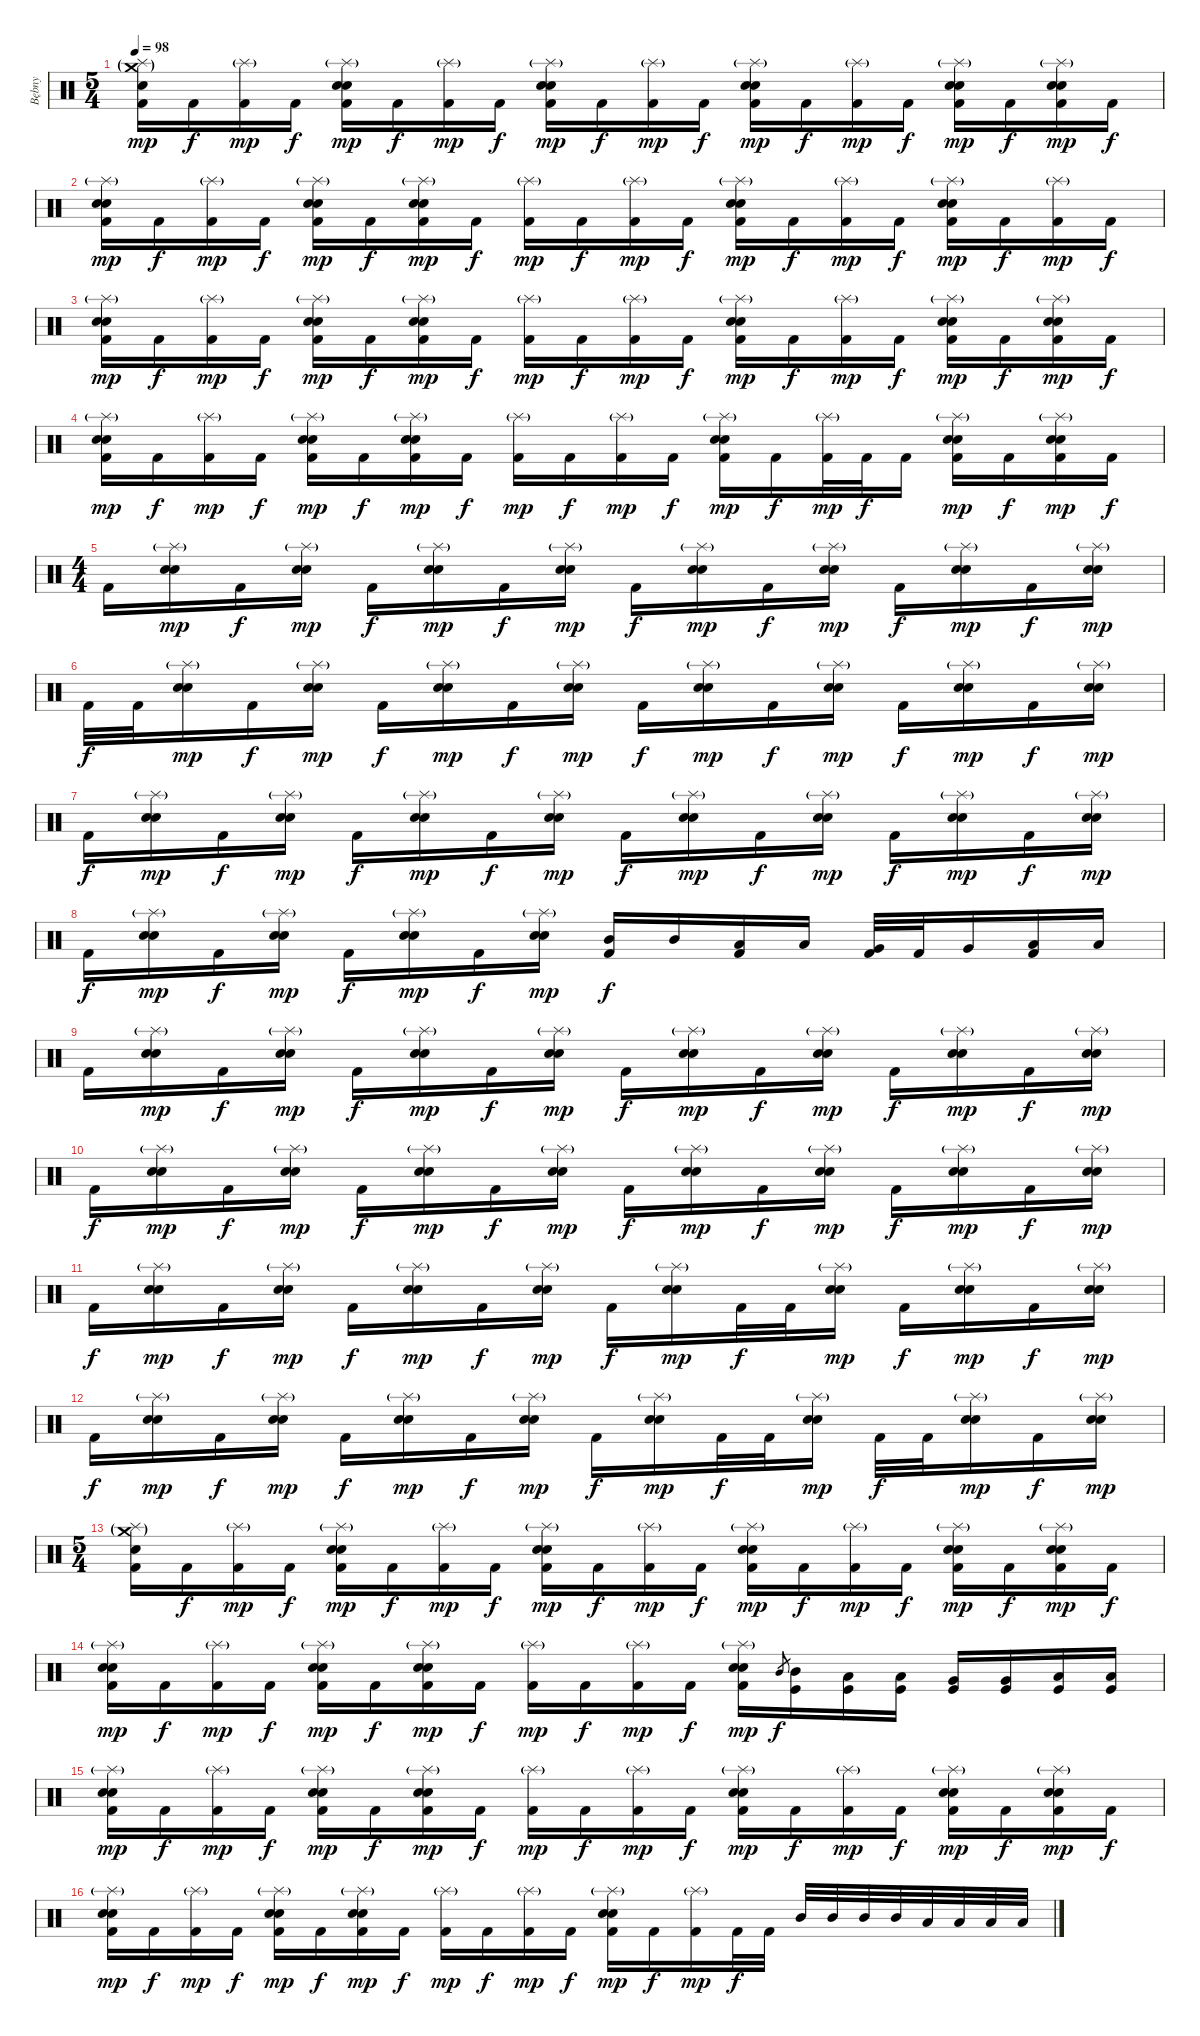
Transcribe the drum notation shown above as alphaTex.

\track ("Bębny" "Bębny") {instrument percussion}
\staff {score}
\articulation defaults
\ts (5 4)
\tempo 98
\clef neutral
\ks c
("Splash (hit)"{g} "Crash medium (hit)"{g} "Electric Snare (hit)" "Kick (hit) 2").16{dy mp} "Kick (hit) 2".16{dy f} ("Splash (hit)"{g} "Kick (hit) 2").16{dy mp} "Kick (hit) 2".16{dy f} ("Splash (hit)"{g} "Snare (hit) 2" "Electric Snare (hit)" "Kick (hit) 2").16{dy mp} "Kick (hit) 2".16{dy f} ("Splash (hit)"{g} "Kick (hit) 2").16{dy mp} "Kick (hit) 2".16{dy f} ("Splash (hit)"{g} "Snare (hit) 2" "Electric Snare (hit)" "Kick (hit) 2").16{dy mp} "Kick (hit) 2".16{dy f} ("Splash (hit)"{g} "Kick (hit) 2").16{dy mp} "Kick (hit) 2".16{dy f} ("Splash (hit)"{g} "Snare (hit) 2" "Electric Snare (hit)" "Kick (hit) 2").16{dy mp} "Kick (hit) 2".16{dy f} ("Splash (hit)"{g} "Kick (hit) 2").16{dy mp} "Kick (hit) 2".16{dy f} ("Splash (hit)"{g} "Snare (hit) 2" "Electric Snare (hit)" "Kick (hit) 2").16{dy mp} "Kick (hit) 2".16{dy f} ("Splash (hit)"{g} "Snare (hit) 2" "Electric Snare (hit)" "Kick (hit) 2").16{dy mp} "Kick (hit) 2".16{dy f} |
("Splash (hit)"{g} "Snare (hit) 2" "Electric Snare (hit)" "Kick (hit) 2").16{dy mp} "Kick (hit) 2".16{dy f} ("Splash (hit)"{g} "Kick (hit) 2").16{dy mp} "Kick (hit) 2".16{dy f} ("Splash (hit)"{g} "Snare (hit) 2" "Electric Snare (hit)" "Kick (hit) 2").16{dy mp} "Kick (hit) 2".16{dy f} ("Splash (hit)"{g} "Snare (hit) 2" "Electric Snare (hit)" "Kick (hit) 2").16{dy mp} "Kick (hit) 2".16{dy f} ("Splash (hit)"{g} "Kick (hit) 2").16{dy mp} "Kick (hit) 2".16{dy f} ("Splash (hit)"{g} "Kick (hit) 2").16{dy mp} "Kick (hit) 2".16{dy f} ("Splash (hit)"{g} "Snare (hit) 2" "Electric Snare (hit)" "Kick (hit) 2").16{dy mp} "Kick (hit) 2".16{dy f} ("Splash (hit)"{g} "Kick (hit) 2").16{dy mp} "Kick (hit) 2".16{dy f} ("Splash (hit)"{g} "Snare (hit) 2" "Electric Snare (hit)" "Kick (hit) 2").16{dy mp} "Kick (hit) 2".16{dy f} ("Splash (hit)"{g} "Kick (hit) 2").16{dy mp} "Kick (hit) 2".16{dy f} |
("Splash (hit)"{g} "Snare (hit) 2" "Electric Snare (hit)" "Kick (hit) 2").16{dy mp} "Kick (hit) 2".16{dy f} ("Splash (hit)"{g} "Kick (hit) 2").16{dy mp} "Kick (hit) 2".16{dy f} ("Splash (hit)"{g} "Snare (hit) 2" "Electric Snare (hit)" "Kick (hit) 2").16{dy mp} "Kick (hit) 2".16{dy f} ("Splash (hit)"{g} "Snare (hit) 2" "Electric Snare (hit)" "Kick (hit) 2").16{dy mp} "Kick (hit) 2".16{dy f} ("Splash (hit)"{g} "Kick (hit) 2").16{dy mp} "Kick (hit) 2".16{dy f} ("Splash (hit)"{g} "Kick (hit) 2").16{dy mp} "Kick (hit) 2".16{dy f} ("Splash (hit)"{g} "Snare (hit) 2" "Electric Snare (hit)" "Kick (hit) 2").16{dy mp} "Kick (hit) 2".16{dy f} ("Splash (hit)"{g} "Kick (hit) 2").16{dy mp} "Kick (hit) 2".16{dy f} ("Splash (hit)"{g} "Snare (hit) 2" "Electric Snare (hit)" "Kick (hit) 2").16{dy mp} "Kick (hit) 2".16{dy f} ("Splash (hit)"{g} "Snare (hit) 2" "Electric Snare (hit)" "Kick (hit) 2").16{dy mp} "Kick (hit) 2".16{dy f} |
("Splash (hit)"{g} "Snare (hit) 2" "Electric Snare (hit)" "Kick (hit) 2").16{dy mp} "Kick (hit) 2".16{dy f} ("Splash (hit)"{g} "Kick (hit) 2").16{dy mp} "Kick (hit) 2".16{dy f} ("Splash (hit)"{g} "Snare (hit) 2" "Electric Snare (hit)" "Kick (hit) 2").16{dy mp} "Kick (hit) 2".16{dy f} ("Splash (hit)"{g} "Snare (hit) 2" "Electric Snare (hit)" "Kick (hit) 2").16{dy mp} "Kick (hit) 2".16{dy f} ("Splash (hit)"{g} "Kick (hit) 2").16{dy mp} "Kick (hit) 2".16{dy f} ("Splash (hit)"{g} "Kick (hit) 2").16{dy mp} "Kick (hit) 2".16{dy f} ("Splash (hit)"{g} "Snare (hit) 2" "Electric Snare (hit)" "Kick (hit) 2").16{dy mp} "Kick (hit) 2".16{dy f} ("Splash (hit)"{g} "Kick (hit) 2").32{dy mp} "Kick (hit) 2".32{dy f} "Kick (hit) 2".16 ("Splash (hit)"{g} "Snare (hit) 2" "Electric Snare (hit)" "Kick (hit) 2").16{dy mp} "Kick (hit) 2".16{dy f} ("Splash (hit)"{g} "Snare (hit) 2" "Electric Snare (hit)" "Kick (hit) 2").16{dy mp} "Kick (hit) 2".16{dy f} |
\ts (4 4)
"Kick (hit) 2".16 ("Splash (hit)"{g} "Snare (hit) 2" "Electric Snare (hit)").16{dy mp} "Kick (hit) 2".16{dy f} ("Splash (hit)"{g} "Snare (hit) 2" "Electric Snare (hit)").16{dy mp} "Kick (hit) 2".16{dy f} ("Splash (hit)"{g} "Snare (hit) 2" "Electric Snare (hit)").16{dy mp} "Kick (hit) 2".16{dy f} ("Splash (hit)"{g} "Snare (hit) 2" "Electric Snare (hit)").16{dy mp} "Kick (hit) 2".16{dy f} ("Splash (hit)"{g} "Snare (hit) 2" "Electric Snare (hit)").16{dy mp} "Kick (hit) 2".16{dy f} ("Splash (hit)"{g} "Snare (hit) 2" "Electric Snare (hit)").16{dy mp} "Kick (hit) 2".16{dy f} ("Splash (hit)"{g} "Snare (hit) 2" "Electric Snare (hit)").16{dy mp} "Kick (hit) 2".16{dy f} ("Splash (hit)"{g} "Snare (hit) 2" "Electric Snare (hit)").16{dy mp} |
"Kick (hit) 2".32{dy f} "Kick (hit) 2".32 ("Splash (hit)"{g} "Snare (hit) 2" "Electric Snare (hit)").16{dy mp} "Kick (hit) 2".16{dy f} ("Splash (hit)"{g} "Snare (hit) 2" "Electric Snare (hit)").16{dy mp} "Kick (hit) 2".16{dy f} ("Splash (hit)"{g} "Snare (hit) 2" "Electric Snare (hit)").16{dy mp} "Kick (hit) 2".16{dy f} ("Splash (hit)"{g} "Snare (hit) 2" "Electric Snare (hit)").16{dy mp} "Kick (hit) 2".16{dy f} ("Splash (hit)"{g} "Snare (hit) 2" "Electric Snare (hit)").16{dy mp} "Kick (hit) 2".16{dy f} ("Splash (hit)"{g} "Snare (hit) 2" "Electric Snare (hit)").16{dy mp} "Kick (hit) 2".16{dy f} ("Splash (hit)"{g} "Snare (hit) 2" "Electric Snare (hit)").16{dy mp} "Kick (hit) 2".16{dy f} ("Splash (hit)"{g} "Snare (hit) 2" "Electric Snare (hit)").16{dy mp} |
"Kick (hit) 2".16{dy f} ("Splash (hit)"{g} "Snare (hit) 2" "Electric Snare (hit)").16{dy mp} "Kick (hit) 2".16{dy f} ("Splash (hit)"{g} "Snare (hit) 2" "Electric Snare (hit)").16{dy mp} "Kick (hit) 2".16{dy f} ("Splash (hit)"{g} "Snare (hit) 2" "Electric Snare (hit)").16{dy mp} "Kick (hit) 2".16{dy f} ("Splash (hit)"{g} "Snare (hit) 2" "Electric Snare (hit)").16{dy mp} "Kick (hit) 2".16{dy f} ("Splash (hit)"{g} "Snare (hit) 2" "Electric Snare (hit)").16{dy mp} "Kick (hit) 2".16{dy f} ("Splash (hit)"{g} "Snare (hit) 2" "Electric Snare (hit)").16{dy mp} "Kick (hit) 2".16{dy f} ("Splash (hit)"{g} "Snare (hit) 2" "Electric Snare (hit)").16{dy mp} "Kick (hit) 2".16{dy f} ("Splash (hit)"{g} "Snare (hit) 2" "Electric Snare (hit)").16{dy mp} |
"Kick (hit) 2".16{dy f} ("Splash (hit)"{g} "Snare (hit) 2" "Electric Snare (hit)").16{dy mp} "Kick (hit) 2".16{dy f} ("Splash (hit)"{g} "Snare (hit) 2" "Electric Snare (hit)").16{dy mp} "Kick (hit) 2".16{dy f} ("Splash (hit)"{g} "Snare (hit) 2" "Electric Snare (hit)").16{dy mp} "Kick (hit) 2".16{dy f} ("Splash (hit)"{g} "Snare (hit) 2" "Electric Snare (hit)").16{dy mp} ("Mid Tom (hit)" "Kick (hit) 2").16{dy f} "Mid Tom (hit)".16 ("Low Tom (hit)" "Kick (hit) 2").16 "Low Tom (hit)".16 ("Very Low Tom (hit)" "Kick (hit) 2").32 "Kick (hit) 2".32 "Very Low Tom (hit)".16 ("Low Floor Tom (hit)" "Kick (hit) 2").16 "Low Floor Tom (hit)".16 |
"Kick (hit) 2".16 ("Splash (hit)"{g} "Snare (hit) 2" "Electric Snare (hit)").16{dy mp} "Kick (hit) 2".16{dy f} ("Splash (hit)"{g} "Snare (hit) 2" "Electric Snare (hit)").16{dy mp} "Kick (hit) 2".16{dy f} ("Splash (hit)"{g} "Snare (hit) 2" "Electric Snare (hit)").16{dy mp} "Kick (hit) 2".16{dy f} ("Splash (hit)"{g} "Snare (hit) 2" "Electric Snare (hit)").16{dy mp} "Kick (hit) 2".16{dy f} ("Splash (hit)"{g} "Snare (hit) 2" "Electric Snare (hit)").16{dy mp} "Kick (hit) 2".16{dy f} ("Splash (hit)"{g} "Snare (hit) 2" "Electric Snare (hit)").16{dy mp} "Kick (hit) 2".16{dy f} ("Splash (hit)"{g} "Snare (hit) 2" "Electric Snare (hit)").16{dy mp} "Kick (hit) 2".16{dy f} ("Splash (hit)"{g} "Snare (hit) 2" "Electric Snare (hit)").16{dy mp} |
"Kick (hit) 2".16{dy f} ("Splash (hit)"{g} "Snare (hit) 2" "Electric Snare (hit)").16{dy mp} "Kick (hit) 2".16{dy f} ("Splash (hit)"{g} "Snare (hit) 2" "Electric Snare (hit)").16{dy mp} "Kick (hit) 2".16{dy f} ("Splash (hit)"{g} "Snare (hit) 2" "Electric Snare (hit)").16{dy mp} "Kick (hit) 2".16{dy f} ("Splash (hit)"{g} "Snare (hit) 2" "Electric Snare (hit)").16{dy mp} "Kick (hit) 2".16{dy f} ("Splash (hit)"{g} "Snare (hit) 2" "Electric Snare (hit)").16{dy mp} "Kick (hit) 2".16{dy f} ("Splash (hit)"{g} "Snare (hit) 2" "Electric Snare (hit)").16{dy mp} "Kick (hit) 2".16{dy f} ("Splash (hit)"{g} "Snare (hit) 2" "Electric Snare (hit)").16{dy mp} "Kick (hit) 2".16{dy f} ("Splash (hit)"{g} "Snare (hit) 2" "Electric Snare (hit)").16{dy mp} |
"Kick (hit) 2".16{dy f} ("Splash (hit)"{g} "Snare (hit) 2" "Electric Snare (hit)").16{dy mp} "Kick (hit) 2".16{dy f} ("Splash (hit)"{g} "Snare (hit) 2" "Electric Snare (hit)").16{dy mp} "Kick (hit) 2".16{dy f} ("Splash (hit)"{g} "Snare (hit) 2" "Electric Snare (hit)").16{dy mp} "Kick (hit) 2".16{dy f} ("Splash (hit)"{g} "Snare (hit) 2" "Electric Snare (hit)").16{dy mp} "Kick (hit) 2".16{dy f} ("Splash (hit)"{g} "Snare (hit) 2" "Electric Snare (hit)").16{dy mp} "Kick (hit) 2".32{dy f} "Kick (hit) 2".32 ("Splash (hit)"{g} "Snare (hit) 2" "Electric Snare (hit)").16{dy mp} "Kick (hit) 2".16{dy f} ("Splash (hit)"{g} "Snare (hit) 2" "Electric Snare (hit)").16{dy mp} "Kick (hit) 2".16{dy f} ("Splash (hit)"{g} "Snare (hit) 2" "Electric Snare (hit)").16{dy mp} |
"Kick (hit) 2".16{dy f} ("Splash (hit)"{g} "Snare (hit) 2" "Electric Snare (hit)").16{dy mp} "Kick (hit) 2".16{dy f} ("Splash (hit)"{g} "Snare (hit) 2" "Electric Snare (hit)").16{dy mp} "Kick (hit) 2".16{dy f} ("Splash (hit)"{g} "Snare (hit) 2" "Electric Snare (hit)").16{dy mp} "Kick (hit) 2".16{dy f} ("Splash (hit)"{g} "Snare (hit) 2" "Electric Snare (hit)").16{dy mp} "Kick (hit) 2".16{dy f} ("Splash (hit)"{g} "Snare (hit) 2" "Electric Snare (hit)").16{dy mp} "Kick (hit) 2".32{dy f} "Kick (hit) 2".32 ("Splash (hit)"{g} "Snare (hit) 2" "Electric Snare (hit)").16{dy mp} "Kick (hit) 2".32{dy f} "Kick (hit) 2".32 ("Splash (hit)"{g} "Snare (hit) 2" "Electric Snare (hit)").16{dy mp} "Kick (hit) 2".16{dy f} ("Splash (hit)"{g} "Snare (hit) 2" "Electric Snare (hit)").16{dy mp} |
\ts (5 4)
("Splash (hit)"{g} "Crash medium (hit)"{g} "Electric Snare (hit)" "Kick (hit) 2").16 "Kick (hit) 2".16{dy f} ("Splash (hit)"{g} "Kick (hit) 2").16{dy mp} "Kick (hit) 2".16{dy f} ("Splash (hit)"{g} "Snare (hit) 2" "Electric Snare (hit)" "Kick (hit) 2").16{dy mp} "Kick (hit) 2".16{dy f} ("Splash (hit)"{g} "Kick (hit) 2").16{dy mp} "Kick (hit) 2".16{dy f} ("Splash (hit)"{g} "Snare (hit) 2" "Electric Snare (hit)" "Kick (hit) 2").16{dy mp} "Kick (hit) 2".16{dy f} ("Splash (hit)"{g} "Kick (hit) 2").16{dy mp} "Kick (hit) 2".16{dy f} ("Splash (hit)"{g} "Snare (hit) 2" "Electric Snare (hit)" "Kick (hit) 2").16{dy mp} "Kick (hit) 2".16{dy f} ("Splash (hit)"{g} "Kick (hit) 2").16{dy mp} "Kick (hit) 2".16{dy f} ("Splash (hit)"{g} "Snare (hit) 2" "Electric Snare (hit)" "Kick (hit) 2").16{dy mp} "Kick (hit) 2".16{dy f} ("Splash (hit)"{g} "Snare (hit) 2" "Electric Snare (hit)" "Kick (hit) 2").16{dy mp} "Kick (hit) 2".16{dy f} |
("Splash (hit)"{g} "Snare (hit) 2" "Electric Snare (hit)" "Kick (hit) 2").16{dy mp} "Kick (hit) 2".16{dy f} ("Splash (hit)"{g} "Kick (hit) 2").16{dy mp} "Kick (hit) 2".16{dy f} ("Splash (hit)"{g} "Snare (hit) 2" "Electric Snare (hit)" "Kick (hit) 2").16{dy mp} "Kick (hit) 2".16{dy f} ("Splash (hit)"{g} "Snare (hit) 2" "Electric Snare (hit)" "Kick (hit) 2").16{dy mp} "Kick (hit) 2".16{dy f} ("Splash (hit)"{g} "Kick (hit) 2").16{dy mp} "Kick (hit) 2".16{dy f} ("Splash (hit)"{g} "Kick (hit) 2").16{dy mp} "Kick (hit) 2".16{dy f} ("Splash (hit)"{g} "Snare (hit) 2" "Electric Snare (hit)" "Kick (hit) 2").16{dy mp} "Mid Tom (hit)".8{gr dy f} ("Mid Tom (hit)" "Kick (hit)").16 ("Low Tom (hit)" "Kick (hit)").16 ("Low Tom (hit)" "Kick (hit)").16 ("Very Low Tom (hit)" "Kick (hit)").16 ("Very Low Tom (hit)" "Kick (hit)").16 ("Low Floor Tom (hit)" "Kick (hit)").16 ("Low Floor Tom (hit)" "Kick (hit)").16 |
("Splash (hit)"{g} "Snare (hit) 2" "Electric Snare (hit)" "Kick (hit) 2").16{dy mp} "Kick (hit) 2".16{dy f} ("Splash (hit)"{g} "Kick (hit) 2").16{dy mp} "Kick (hit) 2".16{dy f} ("Splash (hit)"{g} "Snare (hit) 2" "Electric Snare (hit)" "Kick (hit) 2").16{dy mp} "Kick (hit) 2".16{dy f} ("Splash (hit)"{g} "Snare (hit) 2" "Electric Snare (hit)" "Kick (hit) 2").16{dy mp} "Kick (hit) 2".16{dy f} ("Splash (hit)"{g} "Kick (hit) 2").16{dy mp} "Kick (hit) 2".16{dy f} ("Splash (hit)"{g} "Kick (hit) 2").16{dy mp} "Kick (hit) 2".16{dy f} ("Splash (hit)"{g} "Snare (hit) 2" "Electric Snare (hit)" "Kick (hit) 2").16{dy mp} "Kick (hit) 2".16{dy f} ("Splash (hit)"{g} "Kick (hit) 2").16{dy mp} "Kick (hit) 2".16{dy f} ("Splash (hit)"{g} "Snare (hit) 2" "Electric Snare (hit)" "Kick (hit) 2").16{dy mp} "Kick (hit) 2".16{dy f} ("Splash (hit)"{g} "Snare (hit) 2" "Electric Snare (hit)" "Kick (hit) 2").16{dy mp} "Kick (hit) 2".16{dy f} |
("Splash (hit)"{g} "Snare (hit) 2" "Electric Snare (hit)" "Kick (hit) 2").16{dy mp} "Kick (hit) 2".16{dy f} ("Splash (hit)"{g} "Kick (hit) 2").16{dy mp} "Kick (hit) 2".16{dy f} ("Splash (hit)"{g} "Snare (hit) 2" "Electric Snare (hit)" "Kick (hit) 2").16{dy mp} "Kick (hit) 2".16{dy f} ("Splash (hit)"{g} "Snare (hit) 2" "Electric Snare (hit)" "Kick (hit) 2").16{dy mp} "Kick (hit) 2".16{dy f} ("Splash (hit)"{g} "Kick (hit) 2").16{dy mp} "Kick (hit) 2".16{dy f} ("Splash (hit)"{g} "Kick (hit) 2").16{dy mp} "Kick (hit) 2".16{dy f} ("Splash (hit)"{g} "Snare (hit) 2" "Electric Snare (hit)" "Kick (hit) 2").16{dy mp} "Kick (hit) 2".16{dy f} ("Splash (hit)"{g} "Kick (hit) 2").16{dy mp} "Kick (hit) 2".32{dy f} "Kick (hit) 2".32 "Mid Tom (hit)".32 "Mid Tom (hit)".32 "Mid Tom (hit)".32 "Mid Tom (hit)".32 "Low Tom (hit)".32 "Low Tom (hit)".32 "Low Tom (hit)".32 "Low Tom (hit)".32
